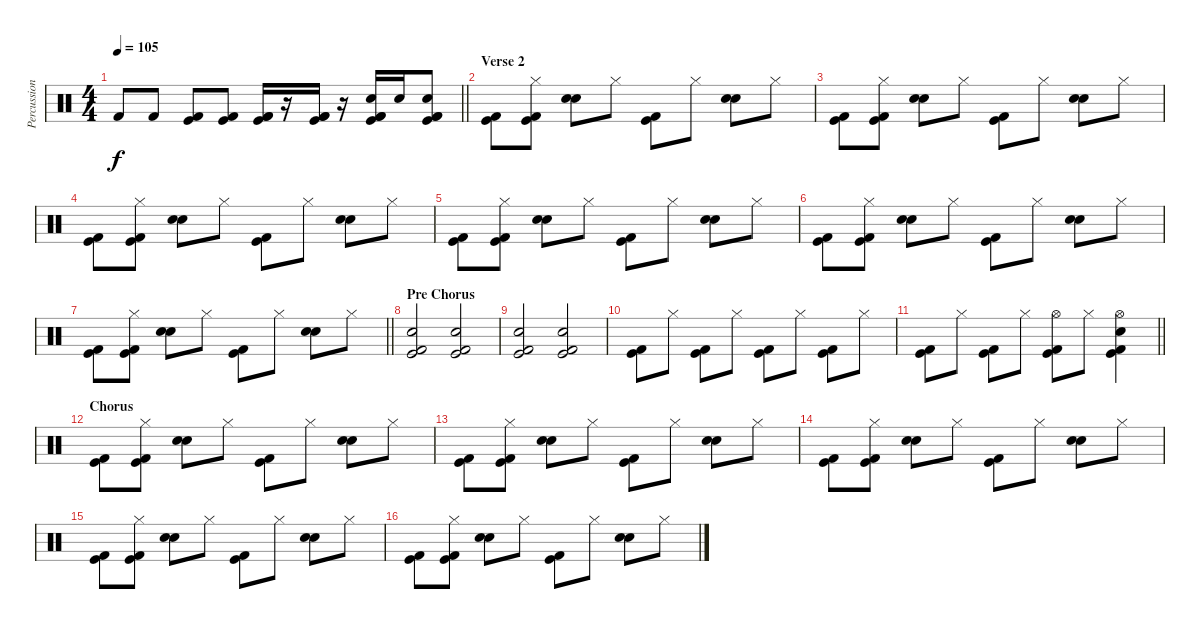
\track ("Percussion" "Percussion") {instrument percussion}
\staff {score}
\articulation defaults
\ts (4 4)
\tempo 105
\clef neutral
\barLineRight lightlight
\ks c "Kick (hit) 2".8{dy f} "Kick (hit) 2".8
("Kick (hit)" "Kick (hit) 2").8 ("Kick (hit)" "Kick (hit) 2").8 ("Kick (hit) 2" "Kick (hit)" "Kick (hit) 2").16 r.16 ("Kick (hit) 2" "Kick (hit)" "Kick (hit) 2").16 r.16 ("Snare (hit) 2" "Kick (hit) 2" "Kick (hit)" "Kick (hit) 2").16 "Snare (hit) 2".16 ("Snare (hit) 2" "Kick (hit) 2" "Kick (hit)" "Kick (hit) 2").8 |
\section ("" "Verse 2")
("Kick (hit) 2" "Kick (hit)").8 ("Hi-Hat (closed)" "Kick (hit) 2" "Kick (hit)").8 ("Hand Clap (hit)" "Electric Snare (hit)").8 "Hi-Hat (closed)".8 ("Kick (hit) 2" "Kick (hit)").8 "Hi-Hat (closed)".8 ("Hand Clap (hit)" "Electric Snare (hit)").8 "Hi-Hat (closed)".8 |
("Kick (hit) 2" "Kick (hit)").8 ("Hi-Hat (closed)" "Kick (hit) 2" "Kick (hit)").8 ("Hand Clap (hit)" "Electric Snare (hit)").8 "Hi-Hat (closed)".8 ("Kick (hit) 2" "Kick (hit)").8 "Hi-Hat (closed)".8 ("Hand Clap (hit)" "Electric Snare (hit)").8 "Hi-Hat (closed)".8 |
("Kick (hit) 2" "Kick (hit)").8 ("Hi-Hat (closed)" "Kick (hit) 2" "Kick (hit)").8 ("Hand Clap (hit)" "Electric Snare (hit)").8 "Hi-Hat (closed)".8 ("Kick (hit) 2" "Kick (hit)").8 "Hi-Hat (closed)".8 ("Hand Clap (hit)" "Electric Snare (hit)").8 "Hi-Hat (closed)".8 |
("Kick (hit) 2" "Kick (hit)").8 ("Hi-Hat (closed)" "Kick (hit) 2" "Kick (hit)").8 ("Hand Clap (hit)" "Electric Snare (hit)").8 "Hi-Hat (closed)".8 ("Kick (hit) 2" "Kick (hit)").8 "Hi-Hat (closed)".8 ("Hand Clap (hit)" "Electric Snare (hit)").8 "Hi-Hat (closed)".8 |
("Kick (hit) 2" "Kick (hit)").8 ("Hi-Hat (closed)" "Kick (hit) 2" "Kick (hit)").8 ("Hand Clap (hit)" "Electric Snare (hit)").8 "Hi-Hat (closed)".8 ("Kick (hit) 2" "Kick (hit)").8 "Hi-Hat (closed)".8 ("Hand Clap (hit)" "Electric Snare (hit)").8 "Hi-Hat (closed)".8 |
\barLineRight lightlight
("Kick (hit) 2" "Kick (hit)").8 ("Hi-Hat (closed)" "Kick (hit) 2" "Kick (hit)").8 ("Hand Clap (hit)" "Electric Snare (hit)").8 "Hi-Hat (closed)".8 ("Kick (hit) 2" "Kick (hit)").8 "Hi-Hat (closed)".8 ("Hand Clap (hit)" "Electric Snare (hit)").8 "Hi-Hat (closed)".8 |
\section ("" "Pre Chorus")
("Electric Snare (hit)" "Kick (hit) 2" "Kick (hit)").2 ("Electric Snare (hit)" "Kick (hit) 2" "Kick (hit)").2 |
("Electric Snare (hit)" "Kick (hit) 2" "Kick (hit)").2 ("Electric Snare (hit)" "Kick (hit) 2" "Kick (hit)").2 |
("Kick (hit) 2" "Kick (hit)").8 "Hi-Hat (closed)".8 ("Kick (hit) 2" "Kick (hit)").8 "Hi-Hat (closed)".8 ("Kick (hit) 2" "Kick (hit)").8 "Hi-Hat (closed)".8 ("Kick (hit) 2" "Kick (hit)").8 "Hi-Hat (closed)".8 |
\barLineRight lightlight
("Kick (hit) 2" "Kick (hit)").8 "Hi-Hat (closed)".8 ("Kick (hit)" "Kick (hit) 2").8 "Hi-Hat (closed)".8 ("Hi-Hat (open)" "Kick (hit) 2" "Kick (hit)").8 "Hi-Hat (closed)".8 ("Electric Snare (hit)" "Hi-Hat (open)" "Kick (hit) 2" "Kick (hit)").4 |
\section ("" "Chorus")
("Kick (hit) 2" "Kick (hit)").8 ("Hi-Hat (closed)" "Kick (hit) 2" "Kick (hit)").8 ("Hand Clap (hit)" "Electric Snare (hit)").8 "Hi-Hat (closed)".8 ("Kick (hit) 2" "Kick (hit)").8 "Hi-Hat (closed)".8 ("Hand Clap (hit)" "Electric Snare (hit)").8 "Hi-Hat (closed)".8 |
("Kick (hit) 2" "Kick (hit)").8 ("Hi-Hat (closed)" "Kick (hit) 2" "Kick (hit)").8 ("Hand Clap (hit)" "Electric Snare (hit)").8 "Hi-Hat (closed)".8 ("Kick (hit) 2" "Kick (hit)").8 "Hi-Hat (closed)".8 ("Hand Clap (hit)" "Electric Snare (hit)").8 "Hi-Hat (closed)".8 |
("Kick (hit) 2" "Kick (hit)").8 ("Hi-Hat (closed)" "Kick (hit) 2" "Kick (hit)").8 ("Hand Clap (hit)" "Electric Snare (hit)").8 "Hi-Hat (closed)".8 ("Kick (hit) 2" "Kick (hit)").8 "Hi-Hat (closed)".8 ("Hand Clap (hit)" "Electric Snare (hit)").8 "Hi-Hat (closed)".8 |
("Kick (hit) 2" "Kick (hit)").8 ("Hi-Hat (closed)" "Kick (hit) 2" "Kick (hit)").8 ("Hand Clap (hit)" "Electric Snare (hit)").8 "Hi-Hat (closed)".8 ("Kick (hit) 2" "Kick (hit)").8 "Hi-Hat (closed)".8 ("Hand Clap (hit)" "Electric Snare (hit)").8 "Hi-Hat (closed)".8 |
("Kick (hit) 2" "Kick (hit)").8 ("Hi-Hat (closed)" "Kick (hit) 2" "Kick (hit)").8 ("Hand Clap (hit)" "Electric Snare (hit)").8 "Hi-Hat (closed)".8 ("Kick (hit) 2" "Kick (hit)").8 "Hi-Hat (closed)".8 ("Hand Clap (hit)" "Electric Snare (hit)").8 "Hi-Hat (closed)".8
